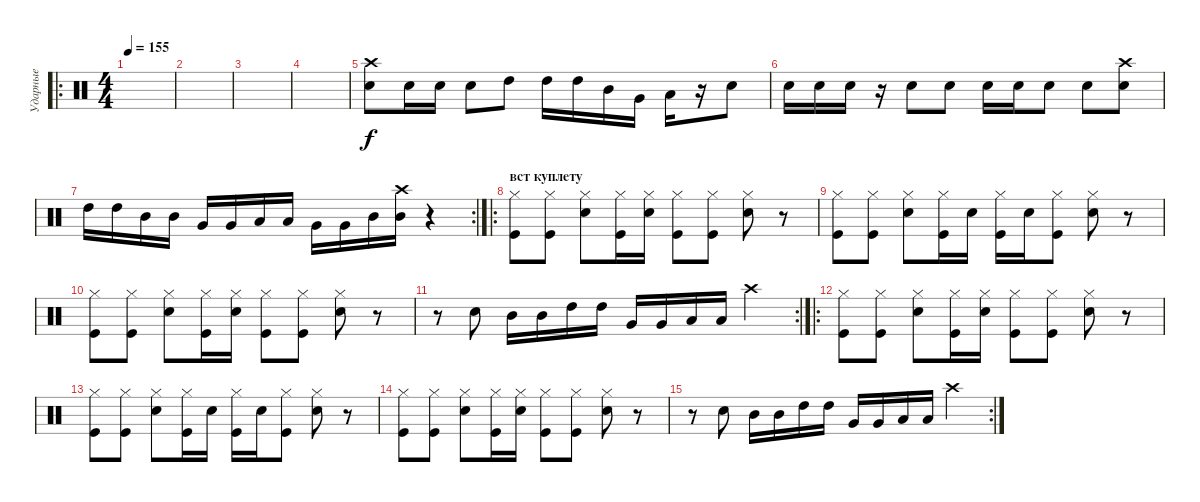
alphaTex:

\track ("Ударные" "Ударные") {instrument percussion}
\staff {score}
\articulation defaults
\ro
\ts (4 4)
\tempo 155
\clef neutral
\ks c
|
|
|
|
("Crash high (hit)" "Snare (hit) 2").8 "Snare (hit) 2".16 "Snare (hit) 2".16 "Snare (hit) 2".8 "High Tom (hit)".8 "High Tom (hit)".16 "High Tom (hit)".16 "Mid Tom (hit)".16 "Very Low Tom (hit)".16 "Low Floor Tom (hit)".16 r.16 "Snare (hit) 2".8 |
"Snare (hit) 2".16 "Snare (hit) 2".16 "Snare (hit) 2".16 r.16 "Snare (hit) 2".8 "Snare (hit) 2".8 "Snare (hit) 2".16 "Snare (hit) 2".16 "Snare (hit) 2".8 "Snare (hit) 2".8 ("Crash high (hit)" "Snare (hit) 2").8 |
\rc 2 "High Tom (hit)".16 "High Tom (hit)".16 "Mid Tom (hit)".16 "Mid Tom (hit)".16 "Very Low Tom (hit)".16 "Very Low Tom (hit)".16 "Low Floor Tom (hit)".16 "Low Floor Tom (hit)".16 "Very Low Tom (hit)".16 "Very Low Tom (hit)".16 "Mid Tom (hit)".16
("Crash high (hit)" "Mid Tom (hit)").16 r.4 |
\ro
\section ("" "вст куплету")
("Hi-Hat (closed)" "Kick (hit)").8 ("Hi-Hat (closed)" "Kick (hit)").8 ("Hi-Hat (closed)" "Snare (hit) 2").8 ("Hi-Hat (closed)" "Kick (hit)").16 ("Hi-Hat (closed)" "Snare (hit) 2").16 ("Hi-Hat (closed)" "Kick (hit)").8 ("Hi-Hat (closed)" "Kick (hit)").8 ("Hi-Hat (closed)" "Snare (hit) 2").8 r.8 |
("Hi-Hat (closed)" "Kick (hit)").8 ("Hi-Hat (closed)" "Kick (hit)").8 ("Hi-Hat (closed)" "Snare (hit) 2").8 ("Hi-Hat (closed)" "Kick (hit)").16 "Snare (hit) 2".16 ("Hi-Hat (closed)" "Kick (hit)").16 "Snare (hit) 2".16 ("Hi-Hat (closed)" "Kick (hit)").8 ("Hi-Hat (closed)" "Snare (hit) 2").8 r.8 |
("Hi-Hat (closed)" "Kick (hit)").8 ("Hi-Hat (closed)" "Kick (hit)").8 ("Hi-Hat (closed)" "Snare (hit) 2").8 ("Hi-Hat (closed)" "Kick (hit)").16 ("Hi-Hat (closed)" "Snare (hit) 2").16 ("Hi-Hat (closed)" "Kick (hit)").8 ("Hi-Hat (closed)" "Kick (hit)").8 ("Hi-Hat (closed)" "Snare (hit) 2").8 r.8 |
\rc 2
r.8 "Snare (hit) 2".8 "Mid Tom (hit)".16 "Mid Tom (hit)".16 "High Tom (hit)".16 "High Tom (hit)".16 "Very Low Tom (hit)".16 "Very Low Tom (hit)".16 "Low Floor Tom (hit)".16 "Low Floor Tom (hit)".16 "Crash high (hit)".4 |
\ro
("Hi-Hat (closed)" "Kick (hit)").8 ("Hi-Hat (closed)" "Kick (hit)").8 ("Hi-Hat (closed)" "Snare (hit) 2").8 ("Hi-Hat (closed)" "Kick (hit)").16 ("Hi-Hat (closed)" "Snare (hit) 2").16 ("Hi-Hat (closed)" "Kick (hit)").8 ("Hi-Hat (closed)" "Kick (hit)").8 ("Hi-Hat (closed)" "Snare (hit) 2").8 r.8 |
("Hi-Hat (closed)" "Kick (hit)").8 ("Hi-Hat (closed)" "Kick (hit)").8 ("Hi-Hat (closed)" "Snare (hit) 2").8 ("Hi-Hat (closed)" "Kick (hit)").16 "Snare (hit) 2".16 ("Hi-Hat (closed)" "Kick (hit)").16 "Snare (hit) 2".16 ("Hi-Hat (closed)" "Kick (hit)").8 ("Hi-Hat (closed)" "Snare (hit) 2").8 r.8 |
("Hi-Hat (closed)" "Kick (hit)").8 ("Hi-Hat (closed)" "Kick (hit)").8 ("Hi-Hat (closed)" "Snare (hit) 2").8 ("Hi-Hat (closed)" "Kick (hit)").16 ("Hi-Hat (closed)" "Snare (hit) 2").16 ("Hi-Hat (closed)" "Kick (hit)").8 ("Hi-Hat (closed)" "Kick (hit)").8 ("Hi-Hat (closed)" "Snare (hit) 2").8 r.8 |
\rc 2
r.8 "Snare (hit) 2".8 "Mid Tom (hit)".16 "Mid Tom (hit)".16 "High Tom (hit)".16 "High Tom (hit)".16 "Very Low Tom (hit)".16 "Very Low Tom (hit)".16 "Low Floor Tom (hit)".16 "Low Floor Tom (hit)".16 "Crash high (hit)".4
